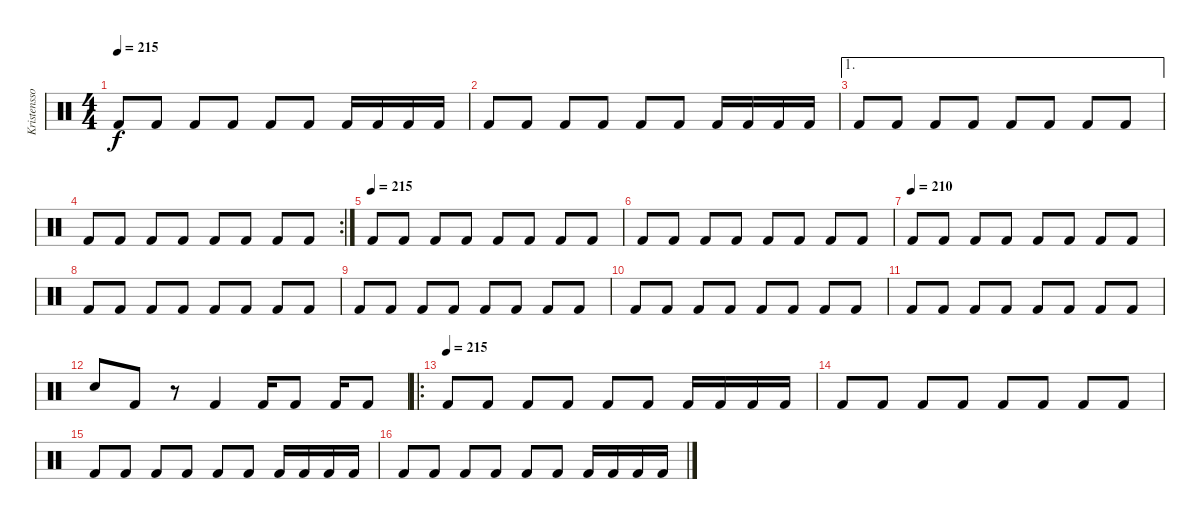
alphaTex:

\track ("Kristensson" "Kristensso") {instrument percussion}
\staff {score}
\articulation defaults
\ts (4 4)
\tempo 215
\clef neutral
\ks c "Kick (hit) 2".8{dy f} "Kick (hit) 2".8 "Kick (hit) 2".8 "Kick (hit) 2".8 "Kick (hit) 2".8 "Kick (hit) 2".8 "Kick (hit) 2".16 "Kick (hit) 2".16 "Kick (hit) 2".16 "Kick (hit) 2".16
|
"Kick (hit) 2".8 "Kick (hit) 2".8 "Kick (hit) 2".8 "Kick (hit) 2".8 "Kick (hit) 2".8 "Kick (hit) 2".8 "Kick (hit) 2".16 "Kick (hit) 2".16 "Kick (hit) 2".16 "Kick (hit) 2".16 |
\ae 1 "Kick (hit) 2".8 "Kick (hit) 2".8 "Kick (hit) 2".8 "Kick (hit) 2".8 "Kick (hit) 2".8 "Kick (hit) 2".8 "Kick (hit) 2".8 "Kick (hit) 2".8
|
\rc 2 "Kick (hit) 2".8 "Kick (hit) 2".8 "Kick (hit) 2".8 "Kick (hit) 2".8 "Kick (hit) 2".8 "Kick (hit) 2".8 "Kick (hit) 2".8 "Kick (hit) 2".8
|
\tempo (215)
"Kick (hit) 2".8 "Kick (hit) 2".8 "Kick (hit) 2".8 "Kick (hit) 2".8 "Kick (hit) 2".8 "Kick (hit) 2".8 "Kick (hit) 2".8 "Kick (hit) 2".8 |
"Kick (hit) 2".8 "Kick (hit) 2".8 "Kick (hit) 2".8 "Kick (hit) 2".8 "Kick (hit) 2".8 "Kick (hit) 2".8 "Kick (hit) 2".8 "Kick (hit) 2".8 |
\tempo (210)
"Kick (hit) 2".8 "Kick (hit) 2".8 "Kick (hit) 2".8 "Kick (hit) 2".8 "Kick (hit) 2".8 "Kick (hit) 2".8 "Kick (hit) 2".8 "Kick (hit) 2".8 |
"Kick (hit) 2".8 "Kick (hit) 2".8 "Kick (hit) 2".8 "Kick (hit) 2".8 "Kick (hit) 2".8 "Kick (hit) 2".8 "Kick (hit) 2".8 "Kick (hit) 2".8 |
"Kick (hit) 2".8 "Kick (hit) 2".8 "Kick (hit) 2".8 "Kick (hit) 2".8 "Kick (hit) 2".8 "Kick (hit) 2".8 "Kick (hit) 2".8 "Kick (hit) 2".8 |
"Kick (hit) 2".8 "Kick (hit) 2".8 "Kick (hit) 2".8 "Kick (hit) 2".8 "Kick (hit) 2".8 "Kick (hit) 2".8 "Kick (hit) 2".8 "Kick (hit) 2".8 |
"Kick (hit) 2".8 "Kick (hit) 2".8 "Kick (hit) 2".8 "Kick (hit) 2".8 "Kick (hit) 2".8 "Kick (hit) 2".8 "Kick (hit) 2".8 "Kick (hit) 2".8 |
"Snare (hit)".8 "Kick (hit) 2".8 r.8 "Kick (hit) 2".4 "Kick (hit) 2".16 "Kick (hit) 2".8 "Kick (hit) 2".16 "Kick (hit) 2".8 |
\ro
\tempo (215)
"Kick (hit) 2".8 "Kick (hit) 2".8 "Kick (hit) 2".8 "Kick (hit) 2".8 "Kick (hit) 2".8 "Kick (hit) 2".8 "Kick (hit) 2".16 "Kick (hit) 2".16 "Kick (hit) 2".16 "Kick (hit) 2".16 |
"Kick (hit) 2".8 "Kick (hit) 2".8 "Kick (hit) 2".8 "Kick (hit) 2".8 "Kick (hit) 2".8 "Kick (hit) 2".8 "Kick (hit) 2".8 "Kick (hit) 2".8 |
"Kick (hit) 2".8 "Kick (hit) 2".8 "Kick (hit) 2".8 "Kick (hit) 2".8 "Kick (hit) 2".8 "Kick (hit) 2".8 "Kick (hit) 2".16 "Kick (hit) 2".16 "Kick (hit) 2".16 "Kick (hit) 2".16 |
"Kick (hit) 2".8 "Kick (hit) 2".8 "Kick (hit) 2".8 "Kick (hit) 2".8 "Kick (hit) 2".8 "Kick (hit) 2".8 "Kick (hit) 2".16 "Kick (hit) 2".16 "Kick (hit) 2".16 "Kick (hit) 2".16
